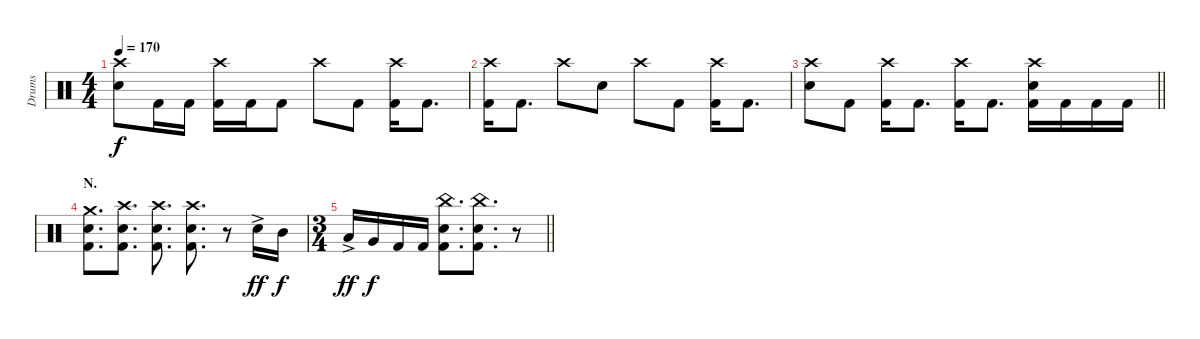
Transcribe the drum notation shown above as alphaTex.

\track ("Drums" "Drums") {instrument percussion}
\staff {score}
\articulation defaults
\ts (4 4)
\tempo 170
\clef neutral
\ks c
("Crash high (hit)" "Electric Snare (hit)").8{dy f} "Kick (hit) 2".16 "Kick (hit) 2".16 ("Crash high (hit)" "Kick (hit) 2").16 "Kick (hit) 2".16 "Kick (hit) 2".8 "Crash high (hit)".8 "Kick (hit) 2".8 ("Crash high (hit)" "Kick (hit) 2").16 "Kick (hit) 2".8{d} |
("Crash high (hit)" "Kick (hit) 2").16 "Kick (hit) 2".8{d} "Crash high (hit)".8 "Electric Snare (hit)".8 "Crash high (hit)".8 "Kick (hit) 2".8 ("Crash high (hit)" "Kick (hit) 2").16 "Kick (hit) 2".8{d} |
\barLineRight lightlight
("Crash high (hit)" "Electric Snare (hit)").8 "Kick (hit) 2".8 ("Crash high (hit)" "Kick (hit) 2").16 "Kick (hit) 2".8{d} ("Crash high (hit)" "Kick (hit) 2").16 "Kick (hit) 2".8{d} ("Crash high (hit)" "Electric Snare (hit)" "Kick (hit) 2").16 "Kick (hit) 2".16 "Kick (hit) 2".16 "Kick (hit) 2".16 |
\section ("" "N.")
("Crash medium (hit)" "Electric Snare (hit)" "Kick (hit) 2").8{d} ("Crash high (hit)" "Electric Snare (hit)" "Kick (hit) 2").8{d} ("Crash high (hit)" "Electric Snare (hit)" "Kick (hit) 2").8{d} ("Crash high (hit)" "Electric Snare (hit)" "Kick (hit) 2").8{d} r.8 "Electric Snare (hit)"{ac}.16{dy ff} "Mid Tom (hit)".16{dy f} |
\ts (3 4)
\barLineRight lightlight "Low Tom (hit)"{ac}.16{dy ff} "Very Low Tom (hit)".16{dy f} "Kick (hit) 2".16 "Kick (hit) 2".16
("China (hit)" "Electric Snare (hit)" "Kick (hit) 2").8{d} ("China (hit)" "Electric Snare (hit)" "Kick (hit) 2").8{d} r.8
